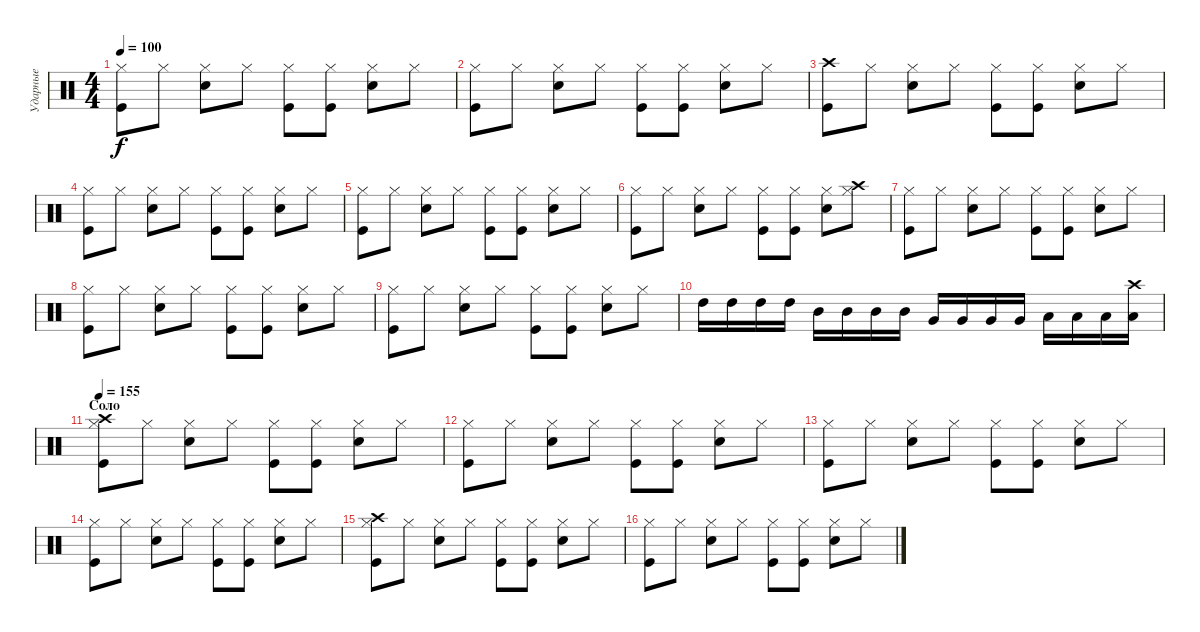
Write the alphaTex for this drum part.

\track ("Ударные" "Ударные") {instrument percussion}
\staff {score}
\articulation defaults
\ts (4 4)
\tempo 100
\clef neutral
\ks c
("Hi-Hat (closed)" "Kick (hit)").8{dy f} "Hi-Hat (closed)".8 ("Hi-Hat (closed)" "Snare (hit) 2").8 "Hi-Hat (closed)".8 ("Hi-Hat (closed)" "Kick (hit)").8 ("Hi-Hat (closed)" "Kick (hit)").8 ("Hi-Hat (closed)" "Snare (hit) 2").8 "Hi-Hat (closed)".8 |
("Hi-Hat (closed)" "Kick (hit)").8 "Hi-Hat (closed)".8 ("Hi-Hat (closed)" "Snare (hit) 2").8 "Hi-Hat (closed)".8 ("Hi-Hat (closed)" "Kick (hit)").8 ("Hi-Hat (closed)" "Kick (hit)").8 ("Hi-Hat (closed)" "Snare (hit) 2").8 "Hi-Hat (closed)".8 |
("Crash high (hit)" "Kick (hit)").8 "Hi-Hat (closed)".8 ("Hi-Hat (closed)" "Snare (hit) 2").8 "Hi-Hat (closed)".8 ("Hi-Hat (closed)" "Kick (hit)").8 ("Hi-Hat (closed)" "Kick (hit)").8 ("Hi-Hat (closed)" "Snare (hit) 2").8 "Hi-Hat (closed)".8 |
("Hi-Hat (closed)" "Kick (hit)").8 "Hi-Hat (closed)".8 ("Hi-Hat (closed)" "Snare (hit) 2").8 "Hi-Hat (closed)".8 ("Hi-Hat (closed)" "Kick (hit)").8 ("Hi-Hat (closed)" "Kick (hit)").8 ("Hi-Hat (closed)" "Snare (hit) 2").8 "Hi-Hat (closed)".8 |
("Hi-Hat (closed)" "Kick (hit)").8 "Hi-Hat (closed)".8 ("Hi-Hat (closed)" "Snare (hit) 2").8 "Hi-Hat (closed)".8 ("Hi-Hat (closed)" "Kick (hit)").8 ("Hi-Hat (closed)" "Kick (hit)").8 ("Hi-Hat (closed)" "Snare (hit) 2").8 "Hi-Hat (closed)".8 |
("Hi-Hat (closed)" "Kick (hit)").8 "Hi-Hat (closed)".8 ("Hi-Hat (closed)" "Snare (hit) 2").8 "Hi-Hat (closed)".8 ("Hi-Hat (closed)" "Kick (hit)").8 ("Hi-Hat (closed)" "Kick (hit)").8 ("Hi-Hat (closed)" "Snare (hit) 2").8 ("Crash high (hit)" "Hi-Hat (closed)").8 |
("Hi-Hat (closed)" "Kick (hit)").8 "Hi-Hat (closed)".8 ("Hi-Hat (closed)" "Snare (hit) 2").8 "Hi-Hat (closed)".8 ("Hi-Hat (closed)" "Kick (hit)").8 ("Hi-Hat (closed)" "Kick (hit)").8 ("Hi-Hat (closed)" "Snare (hit) 2").8 "Hi-Hat (closed)".8 |
("Hi-Hat (closed)" "Kick (hit)").8 "Hi-Hat (closed)".8 ("Hi-Hat (closed)" "Snare (hit) 2").8 "Hi-Hat (closed)".8 ("Hi-Hat (closed)" "Kick (hit)").8 ("Hi-Hat (closed)" "Kick (hit)").8 ("Hi-Hat (closed)" "Snare (hit) 2").8 "Hi-Hat (closed)".8 |
("Hi-Hat (closed)" "Kick (hit)").8 "Hi-Hat (closed)".8 ("Hi-Hat (closed)" "Snare (hit) 2").8 "Hi-Hat (closed)".8 ("Hi-Hat (closed)" "Kick (hit)").8 ("Hi-Hat (closed)" "Kick (hit)").8 ("Hi-Hat (closed)" "Snare (hit) 2").8 "Hi-Hat (closed)".8 |
"High Tom (hit)".16 "High Tom (hit)".16 "High Tom (hit)".16 "High Tom (hit)".16 "Mid Tom (hit)".16 "Mid Tom (hit)".16 "Mid Tom (hit)".16 "Mid Tom (hit)".16 "Very Low Tom (hit)".16 "Very Low Tom (hit)".16 "Very Low Tom (hit)".16 "Very Low Tom (hit)".16 "Low Floor Tom (hit)".16 "Low Floor Tom (hit)".16 "Low Floor Tom (hit)".16 ("Crash high (hit)" "Low Floor Tom (hit)").16 |
\section ("" "Соло")
\tempo 155
("Crash high (hit)" "Hi-Hat (closed)" "Kick (hit)").8 "Hi-Hat (closed)".8 ("Hi-Hat (closed)" "Snare (hit) 2").8 "Hi-Hat (closed)".8 ("Hi-Hat (closed)" "Kick (hit)").8 ("Hi-Hat (closed)" "Kick (hit)").8 ("Hi-Hat (closed)" "Snare (hit) 2").8 "Hi-Hat (closed)".8 |
("Hi-Hat (closed)" "Kick (hit)").8 "Hi-Hat (closed)".8 ("Hi-Hat (closed)" "Snare (hit) 2").8 "Hi-Hat (closed)".8 ("Hi-Hat (closed)" "Kick (hit)").8 ("Hi-Hat (closed)" "Kick (hit)").8 ("Hi-Hat (closed)" "Snare (hit) 2").8 "Hi-Hat (closed)".8 |
("Hi-Hat (closed)" "Kick (hit)").8 "Hi-Hat (closed)".8 ("Hi-Hat (closed)" "Snare (hit) 2").8 "Hi-Hat (closed)".8 ("Hi-Hat (closed)" "Kick (hit)").8 ("Hi-Hat (closed)" "Kick (hit)").8 ("Hi-Hat (closed)" "Snare (hit) 2").8 "Hi-Hat (closed)".8 |
("Hi-Hat (closed)" "Kick (hit)").8 "Hi-Hat (closed)".8 ("Hi-Hat (closed)" "Snare (hit) 2").8 "Hi-Hat (closed)".8 ("Hi-Hat (closed)" "Kick (hit)").8 ("Hi-Hat (closed)" "Kick (hit)").8 ("Hi-Hat (closed)" "Snare (hit) 2").8 "Hi-Hat (closed)".8 |
("Crash high (hit)" "Hi-Hat (closed)" "Kick (hit)").8 "Hi-Hat (closed)".8 ("Hi-Hat (closed)" "Snare (hit) 2").8 "Hi-Hat (closed)".8 ("Hi-Hat (closed)" "Kick (hit)").8 ("Hi-Hat (closed)" "Kick (hit)").8 ("Hi-Hat (closed)" "Snare (hit) 2").8 "Hi-Hat (closed)".8 |
("Hi-Hat (closed)" "Kick (hit)").8 "Hi-Hat (closed)".8 ("Hi-Hat (closed)" "Snare (hit) 2").8 "Hi-Hat (closed)".8 ("Hi-Hat (closed)" "Kick (hit)").8 ("Hi-Hat (closed)" "Kick (hit)").8 ("Hi-Hat (closed)" "Snare (hit) 2").8 "Hi-Hat (closed)".8
